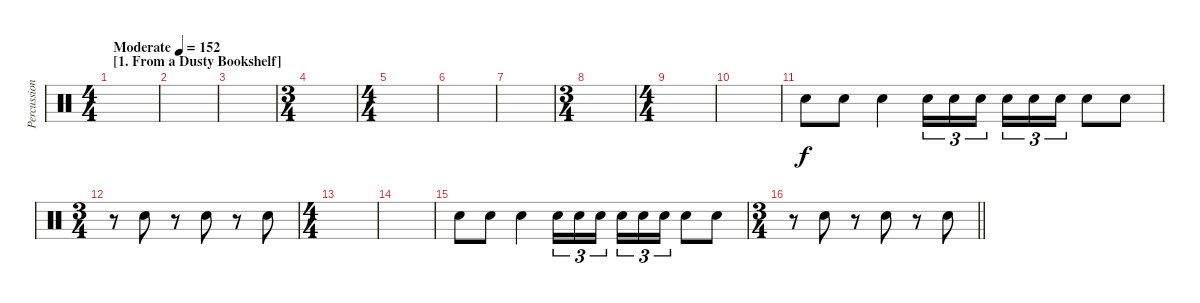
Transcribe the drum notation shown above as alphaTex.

\track ("Percussion" "Percussion") {instrument percussion}
\staff {score}
\articulation defaults
\ts (4 4)
\section ("" "[1. From a Dusty Bookshelf]")
\tempo (152 "Moderate")
\clef neutral
\ks c
|
|
|
\ts (3 4)
|
\ts (4 4)
|
|
|
\ts (3 4)
|
\ts (4 4)
|
|
"Snare (hit) 2".8 "Snare (hit) 2".8 "Snare (hit) 2".4 "Snare (hit) 2".16{tu (3 2)} "Snare (hit) 2".16{tu (3 2)} "Snare (hit) 2".16{tu (3 2) beam splitsecondary} "Snare (hit) 2".16{tu (3 2)} "Snare (hit) 2".16{tu (3 2)} "Snare (hit) 2".16{tu (3 2)} "Snare (hit) 2".8 "Snare (hit) 2".8 |
\ts (3 4)
r.8 "Snare (hit) 2".8 r.8 "Snare (hit) 2".8 r.8 "Snare (hit) 2".8 |
\ts (4 4)
|
|
"Snare (hit) 2".8 "Snare (hit) 2".8 "Snare (hit) 2".4 "Snare (hit) 2".16{tu (3 2)} "Snare (hit) 2".16{tu (3 2)} "Snare (hit) 2".16{tu (3 2) beam splitsecondary} "Snare (hit) 2".16{tu (3 2)} "Snare (hit) 2".16{tu (3 2)} "Snare (hit) 2".16{tu (3 2)} "Snare (hit) 2".8 "Snare (hit) 2".8 |
\ts (3 4)
\barLineRight lightlight
r.8 "Snare (hit) 2".8 r.8 "Snare (hit) 2".8 r.8 "Snare (hit) 2".8
